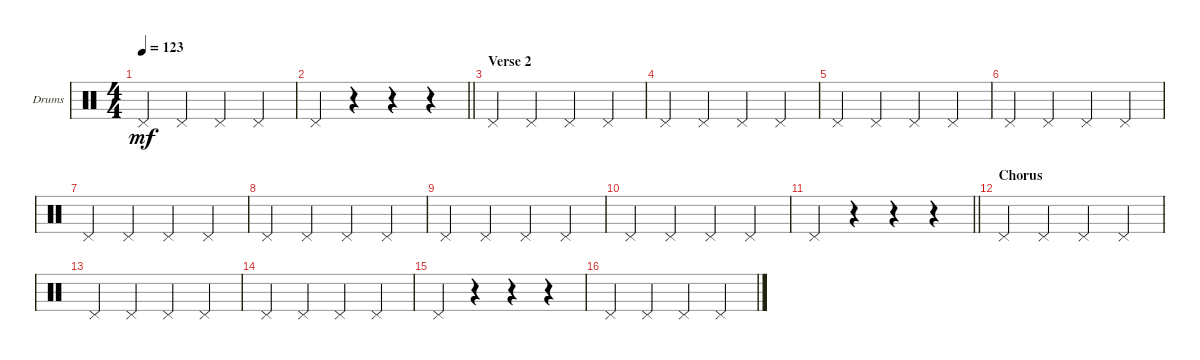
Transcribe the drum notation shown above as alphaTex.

\defaultSystemsLayout 4
\bracketExtendMode groupsimilarinstruments
\firstSystemTrackNameOrientation horizontal
\otherSystemsTrackNameOrientation horizontal
\track ("Pedal Hithat" "Drums") {instrument percussion}
\staff {score}
\articulation defaults
\ts (4 4)
\tempo 123
\clef neutral
\scale
0.333333
\ks c "Pedal Hi-Hat (hit)".4{dy mf} "Pedal Hi-Hat (hit)".4 "Pedal Hi-Hat (hit)".4 "Pedal Hi-Hat (hit)".4
|
\scale
0.333333
\barLineRight lightlight "Pedal Hi-Hat (hit)".4
r.4 r.4 r.4 |
\section ("" "Verse 2")
\scale
0.333333 "Pedal Hi-Hat (hit)".4 "Pedal Hi-Hat (hit)".4 "Pedal Hi-Hat (hit)".4 "Pedal Hi-Hat (hit)".4 |
\scale
0.333333 "Pedal Hi-Hat (hit)".4 "Pedal Hi-Hat (hit)".4 "Pedal Hi-Hat (hit)".4 "Pedal Hi-Hat (hit)".4 |
\scale
0.333333 "Pedal Hi-Hat (hit)".4 "Pedal Hi-Hat (hit)".4 "Pedal Hi-Hat (hit)".4 "Pedal Hi-Hat (hit)".4 |
\scale
0.333333 "Pedal Hi-Hat (hit)".4 "Pedal Hi-Hat (hit)".4 "Pedal Hi-Hat (hit)".4 "Pedal Hi-Hat (hit)".4 |
\scale
0.333333 "Pedal Hi-Hat (hit)".4 "Pedal Hi-Hat (hit)".4 "Pedal Hi-Hat (hit)".4 "Pedal Hi-Hat (hit)".4 |
\scale
0.333333 "Pedal Hi-Hat (hit)".4 "Pedal Hi-Hat (hit)".4 "Pedal Hi-Hat (hit)".4 "Pedal Hi-Hat (hit)".4 |
\scale
0.333333 "Pedal Hi-Hat (hit)".4 "Pedal Hi-Hat (hit)".4 "Pedal Hi-Hat (hit)".4 "Pedal Hi-Hat (hit)".4 |
\scale
0.333333 "Pedal Hi-Hat (hit)".4 "Pedal Hi-Hat (hit)".4 "Pedal Hi-Hat (hit)".4 "Pedal Hi-Hat (hit)".4 |
\scale
0.333333
\barLineRight lightlight "Pedal Hi-Hat (hit)".4
r.4 r.4 r.4 |
\section ("" "Chorus")
\scale
0.333333 "Pedal Hi-Hat (hit)".4 "Pedal Hi-Hat (hit)".4 "Pedal Hi-Hat (hit)".4 "Pedal Hi-Hat (hit)".4 |
\scale
0.333333 "Pedal Hi-Hat (hit)".4 "Pedal Hi-Hat (hit)".4 "Pedal Hi-Hat (hit)".4 "Pedal Hi-Hat (hit)".4 |
\scale
0.333333 "Pedal Hi-Hat (hit)".4 "Pedal Hi-Hat (hit)".4 "Pedal Hi-Hat (hit)".4 "Pedal Hi-Hat (hit)".4 |
\scale
0.333333 "Pedal Hi-Hat (hit)".4 r.4 r.4 r.4 |
\scale
0.333333 "Pedal Hi-Hat (hit)".4 "Pedal Hi-Hat (hit)".4 "Pedal Hi-Hat (hit)".4 "Pedal Hi-Hat (hit)".4
